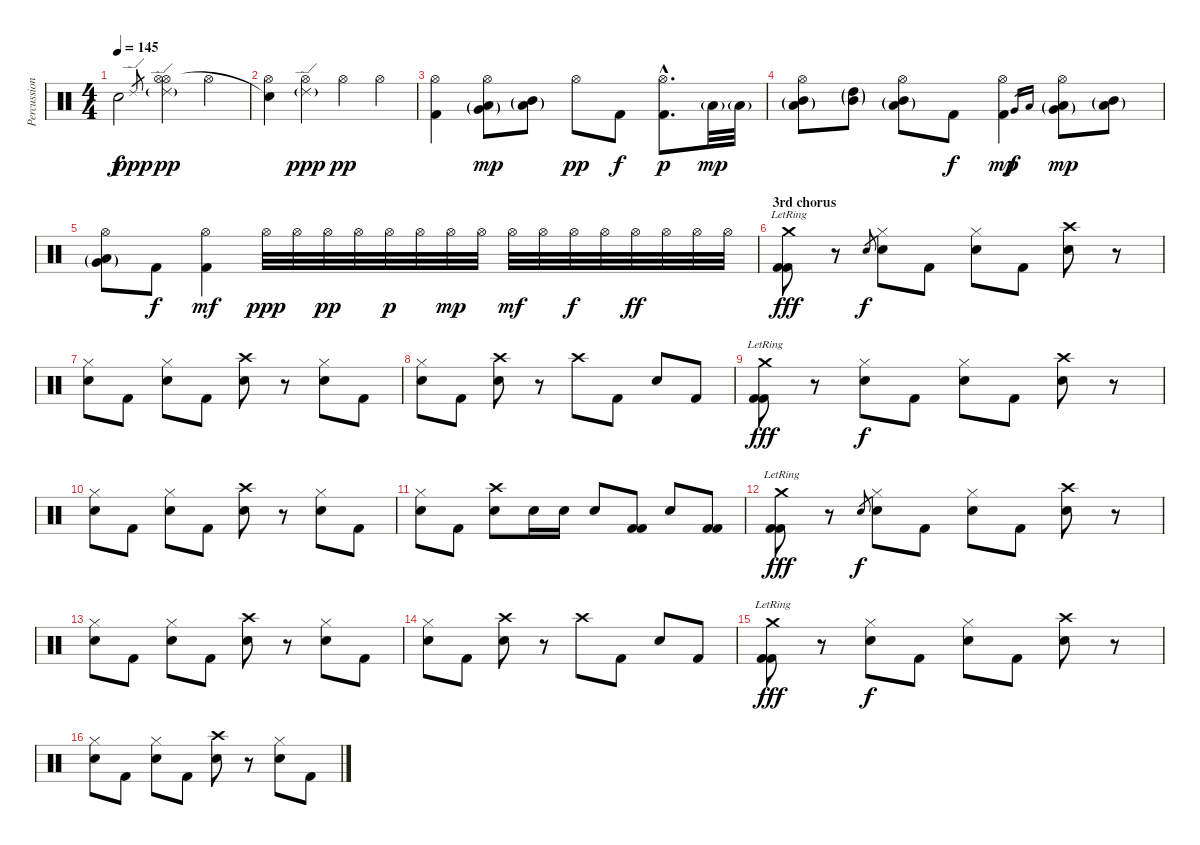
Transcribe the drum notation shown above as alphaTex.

\track ("Percussion" "Percussion") {instrument percussion}
\staff {score}
\articulation defaults
\ts (4 4)
\tempo 145
\clef neutral
\ks c "Snare (hit)"{t}.2{dy f} "Ride (edge) 2".8{gr dy ppp}
("Hi-Hat (open)" "Hi-Hat (open)"{t} "Ride (edge) 2"{g}).4{dy pp} "Hi-Hat (open)".4 |
("Hi-Hat (open)" "Snare (hit)"{t}).4 ("Hi-Hat (open)" "Ride (edge) 2"{g}).4{dy ppp} "Hi-Hat (open)".4{dy pp} "Hi-Hat (open)".4 |
("Hi-Hat (open)" "Kick (hit) 2").4 ("Hi-Hat (open)" "Low Tom (hit)"{g} "Very Low Tom (hit)"{g}).8{dy mp} ("Mid Tom (hit)"{g} "Low Tom (hit)"{g}).8 "Hi-Hat (open)".8{dy pp} "Kick (hit) 2".8{dy f} ("Hi-Hat (open)"{hac} "Kick (hit) 2"{hac}).8{d dy p} "Low Tom (hit)"{g}.32{dy mp} "Low Tom (hit)"{g}.32 |
("Hi-Hat (open)" "Mid Tom (hit)"{g} "Low Tom (hit)"{g}).8 ("High Tom (hit)"{g} "Mid Tom (hit)"{g}).8 ("Hi-Hat (open)" "Mid Tom (hit)"{g} "Low Tom (hit)"{g}).8 "Kick (hit) 2".8{dy f} ("Hi-Hat (open)" "Kick (hit) 2").4{dy mp} "Very Low Tom (hit)".16{gr dy f} "Low Floor Tom (hit)".16{gr} ("Hi-Hat (open)" "Low Tom (hit)"{g} "Very Low Tom (hit)"{g}).8{dy mp} ("Mid Tom (hit)"{g} "Low Tom (hit)"{g}).8 |
("Hi-Hat (open)" "Low Tom (hit)"{g} "Very Low Tom (hit)"{g}).8 "Kick (hit) 2".8{dy f} ("Hi-Hat (open)" "Kick (hit) 2").4{dy mf} "Hi-Hat (open)".32{dy ppp} "Hi-Hat (open)".32 "Hi-Hat (open)".32{dy pp} "Hi-Hat (open)".32 "Hi-Hat (open)".32{dy p} "Hi-Hat (open)".32 "Hi-Hat (open)".32{dy mp} "Hi-Hat (open)".32 "Hi-Hat (open)".32{dy mf} "Hi-Hat (open)".32 "Hi-Hat (open)".32{dy f} "Hi-Hat (open)".32 "Hi-Hat (open)".32{dy ff} "Hi-Hat (open)".32 "Hi-Hat (open)".32 "Hi-Hat (open)".32 |
\section ("" "3rd chorus")
("Crash medium (hit)"{lr} "Kick (hit) 2" "Kick (hit) 2").8{dy fff} r.8 "Electric Snare (hit)".8{gr dy f} ("Hi-Hat (closed)" "Electric Snare (hit)").8 "Kick (hit) 2".8 ("Hi-Hat (closed)" "Electric Snare (hit)").8 "Kick (hit) 2".8 ("Crash high (hit)" "Snare (hit) 2").8 r.8 |
("Hi-Hat (closed)" "Electric Snare (hit)").8 "Kick (hit) 2".8 ("Hi-Hat (closed)" "Electric Snare (hit)").8 "Kick (hit) 2".8 ("Crash high (hit)" "Snare (hit) 2").8 r.8 ("Hi-Hat (closed)" "Electric Snare (hit)").8 "Kick (hit) 2".8 |
("Hi-Hat (closed)" "Electric Snare (hit)").8 "Kick (hit) 2".8 ("Crash high (hit)" "Snare (hit) 2").8 r.8 "Crash high (hit)".8 "Kick (hit) 2".8 "Snare (hit) 2".8 "Kick (hit) 2".8 |
("Crash medium (hit)"{lr} "Kick (hit) 2" "Kick (hit) 2").8{dy fff} r.8 ("Hi-Hat (closed)" "Electric Snare (hit)").8{dy f} "Kick (hit) 2".8 ("Hi-Hat (closed)" "Electric Snare (hit)").8 "Kick (hit) 2".8 ("Crash high (hit)" "Snare (hit) 2").8 r.8 |
("Hi-Hat (closed)" "Electric Snare (hit)").8 "Kick (hit) 2".8 ("Hi-Hat (closed)" "Electric Snare (hit)").8 "Kick (hit) 2".8 ("Crash high (hit)" "Snare (hit) 2").8 r.8 ("Hi-Hat (closed)" "Electric Snare (hit)").8 "Kick (hit) 2".8 |
("Hi-Hat (closed)" "Electric Snare (hit)").8 "Kick (hit) 2".8 ("Crash high (hit)" "Snare (hit) 2").8 "Snare (hit) 2".16 "Snare (hit) 2".16 "Snare (hit) 2".8 ("Kick (hit) 2" "Kick (hit) 2").8 "Snare (hit) 2".8 ("Kick (hit) 2" "Kick (hit) 2").8 |
("Crash medium (hit)"{lr} "Kick (hit) 2" "Kick (hit) 2").8{dy fff} r.8 "Electric Snare (hit)".8{gr dy f} ("Hi-Hat (closed)" "Electric Snare (hit)").8 "Kick (hit) 2".8 ("Hi-Hat (closed)" "Electric Snare (hit)").8 "Kick (hit) 2".8 ("Crash high (hit)" "Snare (hit) 2").8 r.8 |
("Hi-Hat (closed)" "Electric Snare (hit)").8 "Kick (hit) 2".8 ("Hi-Hat (closed)" "Electric Snare (hit)").8 "Kick (hit) 2".8 ("Crash high (hit)" "Snare (hit) 2").8 r.8 ("Hi-Hat (closed)" "Electric Snare (hit)").8 "Kick (hit) 2".8 |
("Hi-Hat (closed)" "Electric Snare (hit)").8 "Kick (hit) 2".8 ("Crash high (hit)" "Snare (hit) 2").8 r.8 "Crash high (hit)".8 "Kick (hit) 2".8 "Snare (hit) 2".8 "Kick (hit) 2".8 |
("Crash medium (hit)"{lr} "Kick (hit) 2" "Kick (hit) 2").8{dy fff} r.8 ("Hi-Hat (closed)" "Electric Snare (hit)").8{dy f} "Kick (hit) 2".8 ("Hi-Hat (closed)" "Electric Snare (hit)").8 "Kick (hit) 2".8 ("Crash high (hit)" "Snare (hit) 2").8 r.8 |
("Hi-Hat (closed)" "Electric Snare (hit)").8 "Kick (hit) 2".8 ("Hi-Hat (closed)" "Electric Snare (hit)").8 "Kick (hit) 2".8 ("Crash high (hit)" "Snare (hit) 2").8 r.8 ("Hi-Hat (closed)" "Electric Snare (hit)").8 "Kick (hit) 2".8
